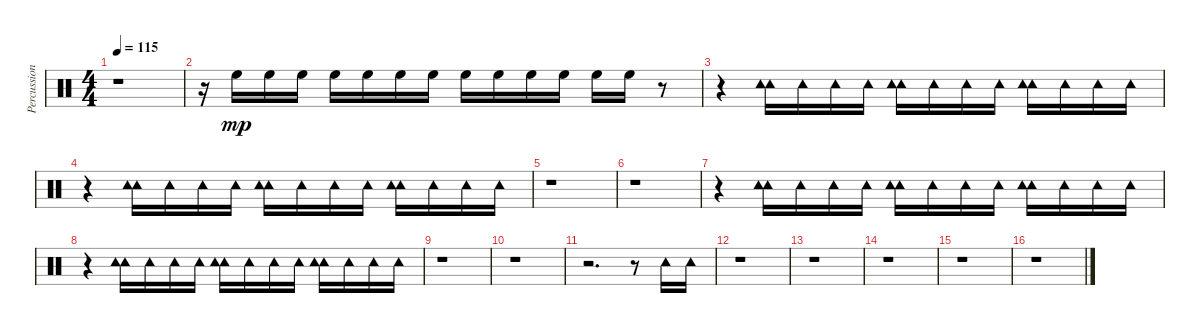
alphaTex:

\track ("Percussions" "Percussion") {instrument percussion}
\staff {score}
\articulation defaults
\ts (4 4)
\tempo 115
\clef neutral
\ks c
r.1{dy mp} |
r.16 "High Floor Tom (hit)".16 "High Floor Tom (hit)".16 "High Floor Tom (hit)".16 "High Floor Tom (hit)".16 "High Floor Tom (hit)".16 "High Floor Tom (hit)".16 "High Floor Tom (hit)".16 "High Floor Tom (hit)".16 "High Floor Tom (hit)".16 "High Floor Tom (hit)".16 "High Floor Tom (hit)".16 "High Floor Tom (hit)".16 "High Floor Tom (hit)".16 r.8 |
r.4 ("Tambourine (hit)" "Tambourine (hit)").16 "Tambourine (hit)".16 "Tambourine (hit)".16 "Tambourine (hit)".16 ("Tambourine (hit)" "Tambourine (hit)").16 "Tambourine (hit)".16 "Tambourine (hit)".16 "Tambourine (hit)".16 ("Tambourine (hit)" "Tambourine (hit)").16 "Tambourine (hit)".16 "Tambourine (hit)".16 "Tambourine (hit)".16 |
r.4 ("Tambourine (hit)" "Tambourine (hit)").16 "Tambourine (hit)".16 "Tambourine (hit)".16 "Tambourine (hit)".16 ("Tambourine (hit)" "Tambourine (hit)").16 "Tambourine (hit)".16 "Tambourine (hit)".16 "Tambourine (hit)".16 ("Tambourine (hit)" "Tambourine (hit)").16 "Tambourine (hit)".16 "Tambourine (hit)".16 "Tambourine (hit)".16 |
r.1 |
r.1 |
r.4 ("Tambourine (hit)" "Tambourine (hit)").16 "Tambourine (hit)".16 "Tambourine (hit)".16 "Tambourine (hit)".16 ("Tambourine (hit)" "Tambourine (hit)").16 "Tambourine (hit)".16 "Tambourine (hit)".16 "Tambourine (hit)".16 ("Tambourine (hit)" "Tambourine (hit)").16 "Tambourine (hit)".16 "Tambourine (hit)".16 "Tambourine (hit)".16 |
r.4 ("Tambourine (hit)" "Tambourine (hit)").16 "Tambourine (hit)".16 "Tambourine (hit)".16 "Tambourine (hit)".16 ("Tambourine (hit)" "Tambourine (hit)").16 "Tambourine (hit)".16 "Tambourine (hit)".16 "Tambourine (hit)".16 ("Tambourine (hit)" "Tambourine (hit)").16 "Tambourine (hit)".16 "Tambourine (hit)".16 "Tambourine (hit)".16 |
r.1 |
r.1 |
r.2{d} r.8 "Tambourine (hit)".16 "Tambourine (hit)".16 |
r.1 |
r.1 |
r.1 |
r.1 |
r.1
